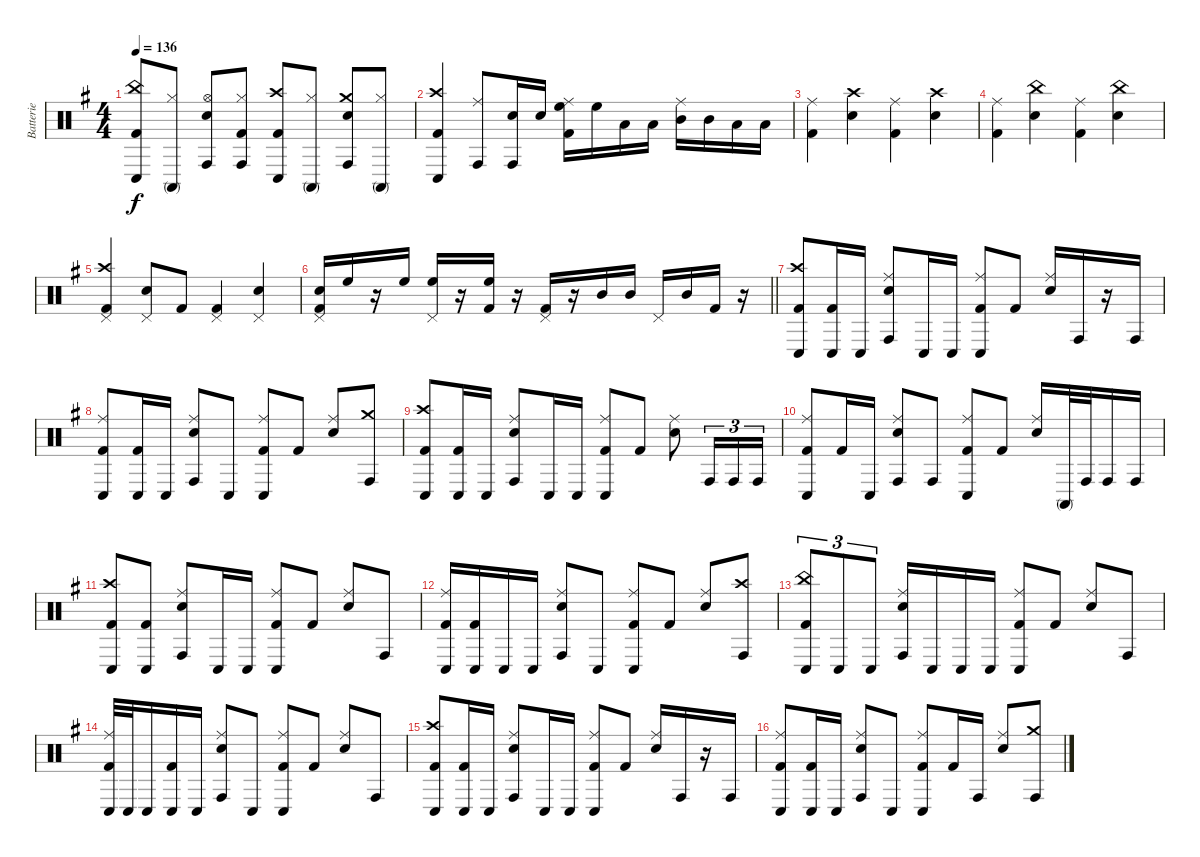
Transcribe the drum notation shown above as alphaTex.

\track ("Batterie" "Batterie") {instrument percussion}
\staff {score}
\articulation defaults
\ts (4 4)
\tempo 136
\clef neutral
\ks g
("China (hit)" "Conga low (hit)" "Kick (hit) 2").8{dy f} ("Hi-Hat (closed)" "Conga high (mute)").8 ("Hi-Hat (open)" "Conga high (hit)" "Snare (hit) 2").8 ("Hi-Hat (closed)" "Conga high (hit)" "Kick (hit) 2").8 ("Crash high (hit)" "Conga low (hit)" "Kick (hit) 2").8 ("Hi-Hat (closed)" "Conga high (mute)").8 ("Crash medium (hit)" "Conga high (hit)" "Snare (hit) 2").8 ("Hi-Hat (closed)" "Conga high (mute)").8 |
("Crash high (hit)" "Conga low (hit)" "Kick (hit) 2").4 ("Ride (middle)" "Conga high (hit)").8 ("Conga high (hit)" "Snare (hit) 2").16 "Snare (hit) 2".16 ("Ride (middle)" "High Floor Tom (hit)" "Kick (hit) 2").16 "High Floor Tom (hit)".16 "Low Tom (hit)".16 "Low Tom (hit)".16 ("Ride (middle)" "Mid Tom (hit)").16 "Mid Tom (hit)".16 "Low Floor Tom (hit)".16 "Low Floor Tom (hit)".16 |
("Ride (middle)" "Kick (hit) 2").4 ("Crash high (hit)" "Snare (hit) 2").4 ("Ride (middle)" "Kick (hit) 2").4 ("Crash high (hit)" "Snare (hit) 2").4 |
("Ride (middle)" "Kick (hit) 2").4 ("China (hit)" "Snare (hit) 2").4 ("Ride (middle)" "Kick (hit) 2").4 ("China (hit)" "Snare (hit) 2").4 |
("Crash high (hit)" "Pedal Hi-Hat (hit)" "Kick (hit) 2").4 ("Pedal Hi-Hat (hit)" "Snare (hit) 2").8 "Kick (hit) 2".8 ("Pedal Hi-Hat (hit)" "Kick (hit) 2").4 ("Pedal Hi-Hat (hit)" "Snare (hit) 2").4 |
\barLineRight lightlight
("Pedal Hi-Hat (hit)" "Snare (hit) 2" "Kick (hit) 2").16 "High Floor Tom (hit)".16 r.16 "High Floor Tom (hit)".16 ("Pedal Hi-Hat (hit)" "High Floor Tom (hit)").16 r.16 ("High Floor Tom (hit)" "Kick (hit) 2").16 r.16 ("Pedal Hi-Hat (hit)" "Kick (hit) 2").16 r.16 "Mid Tom (hit)".16 "Mid Tom (hit)".16 "Pedal Hi-Hat (hit)".16 "Mid Tom (hit)".16 "Kick (hit) 2".16 r.16 |
("Crash high (hit)" "Conga low (hit)" "Kick (hit) 2").8 ("Conga low (hit)" "Kick (hit) 2").16 "Conga low (hit)".16 ("Ride (middle)" "Conga high (hit)" "Snare (hit) 2").8 "Conga low (hit)".16 "Conga low (hit)".16 ("Ride (middle)" "Conga low (hit)" "Kick (hit) 2").8 "Kick (hit) 2".8 ("Ride (middle)" "Snare (hit) 2").16 "Conga high (hit)".16 r.16 "Conga high (hit)".16 |
("Ride (middle)" "Conga low (hit)" "Kick (hit) 2").8 ("Conga low (hit)" "Kick (hit) 2").16 "Conga low (hit)".16 ("Ride (middle)" "Conga high (hit)" "Snare (hit) 2").8 "Conga low (hit)".8 ("Ride (middle)" "Conga low (hit)" "Kick (hit) 2").8 "Kick (hit) 2".8 ("Ride (middle)" "Snare (hit) 2").8 ("Crash medium (hit)" "Conga high (hit)").8 |
("Crash high (hit)" "Conga low (hit)" "Kick (hit) 2").8 ("Conga low (hit)" "Kick (hit) 2").16 "Conga low (hit)".16 ("Ride (middle)" "Conga high (hit)" "Snare (hit) 2").8 "Conga low (hit)".16 "Conga low (hit)".16 ("Ride (middle)" "Conga low (hit)" "Kick (hit) 2").8 "Kick (hit) 2".8 ("Ride (middle)" "Snare (hit) 2").8 "Conga high (hit)".16{tu (3 2)} "Conga high (hit)".16{tu (3 2)} "Conga high (hit)".16{tu (3 2)} |
("Ride (middle)" "Conga low (hit)" "Kick (hit) 2").8 "Kick (hit) 2".16 "Conga low (hit)".16 ("Ride (middle)" "Conga high (hit)" "Snare (hit) 2").8 "Conga high (hit)".8 ("Ride (middle)" "Conga low (hit)" "Kick (hit) 2").8 "Kick (hit) 2".8 ("Ride (middle)" "Snare (hit) 2").16 "Conga high (mute)".32 "Conga high (hit)".32 "Conga high (hit)".16 "Conga high (hit)".16 |
("Crash high (hit)" "Conga low (hit)" "Kick (hit) 2").8 ("Conga low (hit)" "Kick (hit) 2").8 ("Ride (middle)" "Conga high (hit)" "Snare (hit) 2").8 "Conga low (hit)".16 "Conga low (hit)".16 ("Ride (middle)" "Conga low (hit)" "Kick (hit) 2").8 "Kick (hit) 2".8 ("Ride (middle)" "Snare (hit) 2").8 "Conga high (hit)".8 |
("Ride (middle)" "Conga low (hit)" "Kick (hit) 2").16 ("Conga low (hit)" "Kick (hit) 2").16 "Conga low (hit)".16 "Conga low (hit)".16 ("Ride (middle)" "Conga high (hit)" "Snare (hit) 2").8 "Conga low (hit)".8 ("Ride (middle)" "Conga low (hit)" "Kick (hit) 2").8 "Kick (hit) 2".8 ("Ride (middle)" "Snare (hit) 2").8 ("Crash high (hit)" "Conga high (hit)").8 |
("China (hit)" "Conga low (hit)" "Kick (hit) 2").8{tu (3 2)} "Conga low (hit)".8{tu (3 2)} "Conga low (hit)".8{tu (3 2)} ("Ride (middle)" "Conga high (hit)" "Snare (hit) 2").16 "Conga low (hit)".16 "Conga low (hit)".16 "Conga low (hit)".16 ("Ride (middle)" "Conga low (hit)" "Kick (hit) 2").8 "Kick (hit) 2".8 ("Ride (middle)" "Snare (hit) 2").8 "Conga high (hit)".8 |
("Ride (middle)" "Conga low (hit)" "Kick (hit) 2").32 "Conga low (hit)".32 "Conga low (hit)".16 ("Conga low (hit)" "Kick (hit) 2").16 "Conga low (hit)".16 ("Ride (middle)" "Conga high (hit)" "Snare (hit) 2").8 "Conga low (hit)".8 ("Ride (middle)" "Conga low (hit)" "Kick (hit) 2").8 "Kick (hit) 2".8 ("Ride (middle)" "Snare (hit) 2").8 "Conga high (hit)".8 |
("Crash high (hit)" "Conga low (hit)" "Kick (hit) 2").8 ("Conga low (hit)" "Kick (hit) 2").16 "Conga low (hit)".16 ("Ride (middle)" "Conga high (hit)" "Snare (hit) 2").8 "Conga low (hit)".16 "Conga low (hit)".16 ("Ride (middle)" "Conga low (hit)" "Kick (hit) 2").8 "Kick (hit) 2".8 ("Ride (middle)" "Snare (hit) 2").16 "Conga high (hit)".16 r.16 "Conga high (hit)".16 |
("Ride (middle)" "Conga low (hit)" "Kick (hit) 2").8 ("Conga low (hit)" "Kick (hit) 2").16 "Conga low (hit)".16 ("Ride (middle)" "Conga high (hit)" "Snare (hit) 2").8 "Conga low (hit)".8 ("Ride (middle)" "Conga low (hit)" "Kick (hit) 2").8 "Kick (hit) 2".16 "Conga high (hit)".16 ("Ride (middle)" "Snare (hit) 2").8 ("Crash medium (hit)" "Conga high (hit)").8
